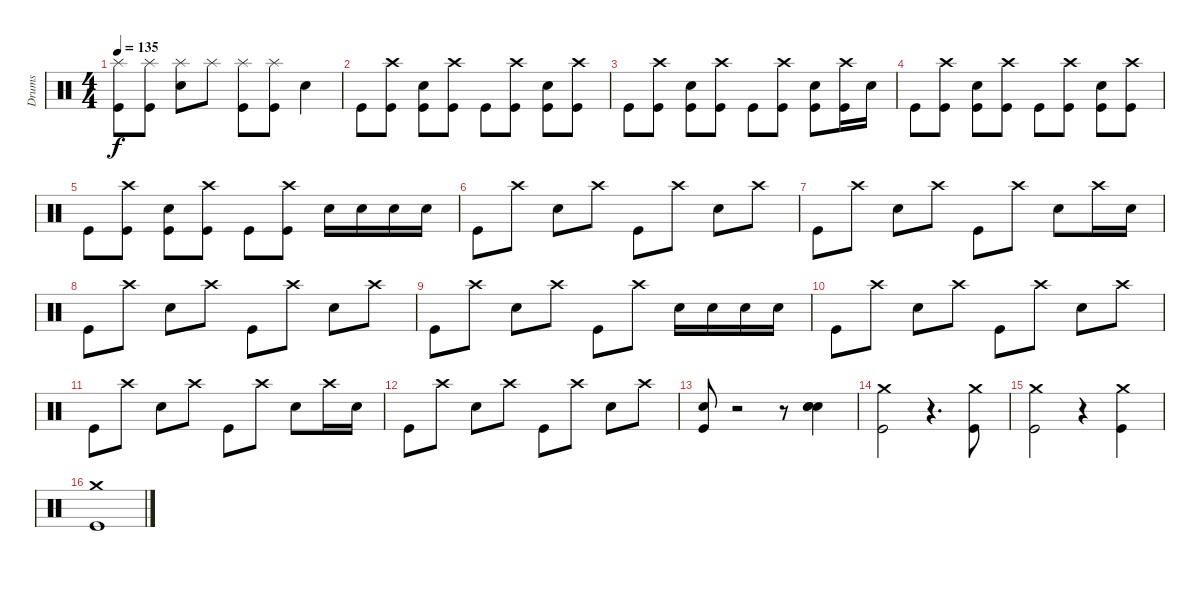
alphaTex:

\track ("Drums" "Drums") {instrument percussion}
\staff {score}
\articulation defaults
\ts (4 4)
\tempo 135
\clef neutral
\ks c
("Splash (hit)" "Kick (hit)").8{dy f} ("Splash (hit)" "Kick (hit)").8 ("Splash (hit)" "Electric Snare (hit)").8 "Splash (hit)".8 ("Splash (hit)" "Kick (hit)").8 ("Splash (hit)" "Kick (hit)").8 "Electric Snare (hit)".4 |
"Kick (hit)".8 ("Crash high (hit)" "Kick (hit)").8 ("Electric Snare (hit)" "Kick (hit)").8 ("Crash high (hit)" "Kick (hit)").8 "Kick (hit)".8 ("Crash high (hit)" "Kick (hit)").8 ("Electric Snare (hit)" "Kick (hit)").8 ("Crash high (hit)" "Kick (hit)").8 |
"Kick (hit)".8 ("Crash high (hit)" "Kick (hit)").8 ("Electric Snare (hit)" "Kick (hit)").8 ("Crash high (hit)" "Kick (hit)").8 "Kick (hit)".8 ("Crash high (hit)" "Kick (hit)").8 ("Electric Snare (hit)" "Kick (hit)").8 ("Crash high (hit)" "Kick (hit)").16 "Electric Snare (hit)".16 |
"Kick (hit)".8 ("Crash high (hit)" "Kick (hit)").8 ("Electric Snare (hit)" "Kick (hit)").8 ("Crash high (hit)" "Kick (hit)").8 "Kick (hit)".8 ("Crash high (hit)" "Kick (hit)").8 ("Electric Snare (hit)" "Kick (hit)").8 ("Crash high (hit)" "Kick (hit)").8 |
"Kick (hit)".8 ("Crash high (hit)" "Kick (hit)").8 ("Electric Snare (hit)" "Kick (hit)").8 ("Crash high (hit)" "Kick (hit)").8 "Kick (hit)".8 ("Crash high (hit)" "Kick (hit)").8 "Electric Snare (hit)".16 "Electric Snare (hit)".16 "Electric Snare (hit)".16 "Electric Snare (hit)".16 |
"Kick (hit)".8 "Crash high (hit)".8 "Electric Snare (hit)".8 "Crash high (hit)".8 "Kick (hit)".8 "Crash high (hit)".8 "Electric Snare (hit)".8 "Crash high (hit)".8 |
"Kick (hit)".8 "Crash high (hit)".8 "Electric Snare (hit)".8 "Crash high (hit)".8 "Kick (hit)".8 "Crash high (hit)".8 "Electric Snare (hit)".8 "Crash high (hit)".16 "Electric Snare (hit)".16 |
"Kick (hit)".8 "Crash high (hit)".8 "Electric Snare (hit)".8 "Crash high (hit)".8 "Kick (hit)".8 "Crash high (hit)".8 "Electric Snare (hit)".8 "Crash high (hit)".8 |
"Kick (hit)".8 "Crash high (hit)".8 "Electric Snare (hit)".8 "Crash high (hit)".8 "Kick (hit)".8 "Crash high (hit)".8 "Electric Snare (hit)".16 "Electric Snare (hit)".16 "Electric Snare (hit)".16 "Electric Snare (hit)".16 |
"Kick (hit)".8 "Crash high (hit)".8 "Electric Snare (hit)".8 "Crash high (hit)".8 "Kick (hit)".8 "Crash high (hit)".8 "Electric Snare (hit)".8 "Crash high (hit)".8 |
"Kick (hit)".8 "Crash high (hit)".8 "Electric Snare (hit)".8 "Crash high (hit)".8 "Kick (hit)".8 "Crash high (hit)".8 "Electric Snare (hit)".8 "Crash high (hit)".16 "Electric Snare (hit)".16 |
"Kick (hit)".8 "Crash high (hit)".8 "Electric Snare (hit)".8 "Crash high (hit)".8 "Kick (hit)".8 "Crash high (hit)".8 "Electric Snare (hit)".8 "Crash high (hit)".8 |
("Electric Snare (hit)" "Kick (hit)").8 r.2 r.8 ("Hand Clap (hit)" "Hand Clap (hit)" "Hand Clap (hit)").4 |
("Crash medium (hit)" "Kick (hit)").2 r.4{d} ("Crash medium (hit)" "Kick (hit)").8 |
("Crash medium (hit)" "Kick (hit)").2 r.4 ("Crash medium (hit)" "Kick (hit)").4 |
("Crash medium (hit)" "Kick (hit)").1
